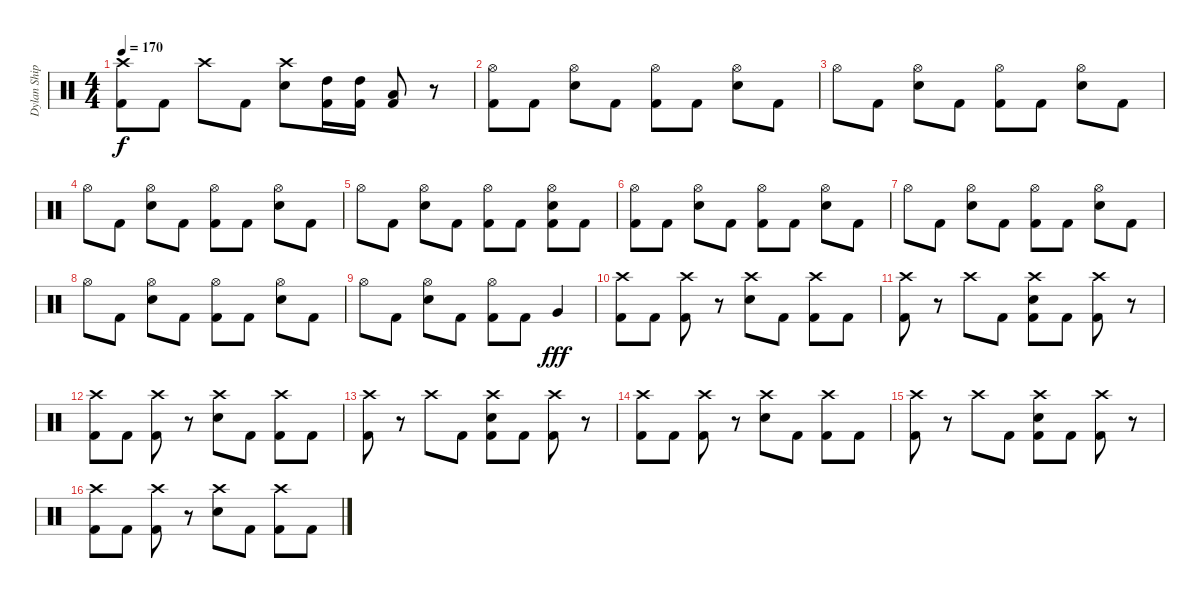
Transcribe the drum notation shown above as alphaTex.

\track ("Dylan Shippey" "Dylan Ship") {instrument percussion}
\staff {score}
\articulation defaults
\ts (4 4)
\tempo 170
\clef neutral
\ks c
("Crash high (hit)" "Kick (hit) 2").8{dy f} "Kick (hit) 2".8 "Crash high (hit)".8 "Kick (hit) 2".8 ("Crash high (hit)" "Electric Snare (hit)").8 ("High Tom (hit)" "Kick (hit) 2").16 ("High Tom (hit)" "Kick (hit) 2").16 ("Low Tom (hit)" "Kick (hit) 2").8 r.8 |
("Hi-Hat (open)" "Kick (hit) 2").8 "Kick (hit) 2".8 ("Hi-Hat (open)" "Electric Snare (hit)").8 "Kick (hit) 2".8 ("Hi-Hat (open)" "Kick (hit) 2").8 "Kick (hit) 2".8 ("Hi-Hat (open)" "Electric Snare (hit)").8 "Kick (hit) 2".8 |
"Hi-Hat (open)".8 "Kick (hit) 2".8 ("Hi-Hat (open)" "Electric Snare (hit)").8 "Kick (hit) 2".8 ("Hi-Hat (open)" "Kick (hit) 2").8 "Kick (hit) 2".8 ("Hi-Hat (open)" "Electric Snare (hit)").8 "Kick (hit) 2".8 |
"Hi-Hat (open)".8 "Kick (hit) 2".8 ("Hi-Hat (open)" "Electric Snare (hit)").8 "Kick (hit) 2".8 ("Hi-Hat (open)" "Kick (hit) 2").8 "Kick (hit) 2".8 ("Hi-Hat (open)" "Electric Snare (hit)").8 "Kick (hit) 2".8 |
"Hi-Hat (open)".8 "Kick (hit) 2".8 ("Hi-Hat (open)" "Electric Snare (hit)").8 "Kick (hit) 2".8 ("Hi-Hat (open)" "Kick (hit) 2").8 "Kick (hit) 2".8 ("Hi-Hat (open)" "Electric Snare (hit)" "Kick (hit) 2").8 "Kick (hit) 2".8 |
("Hi-Hat (open)" "Kick (hit) 2").8 "Kick (hit) 2".8 ("Hi-Hat (open)" "Electric Snare (hit)").8 "Kick (hit) 2".8 ("Hi-Hat (open)" "Kick (hit) 2").8 "Kick (hit) 2".8 ("Hi-Hat (open)" "Electric Snare (hit)").8 "Kick (hit) 2".8 |
"Hi-Hat (open)".8 "Kick (hit) 2".8 ("Hi-Hat (open)" "Electric Snare (hit)").8 "Kick (hit) 2".8 ("Hi-Hat (open)" "Kick (hit) 2").8 "Kick (hit) 2".8 ("Hi-Hat (open)" "Electric Snare (hit)").8 "Kick (hit) 2".8 |
"Hi-Hat (open)".8 "Kick (hit) 2".8 ("Hi-Hat (open)" "Electric Snare (hit)").8 "Kick (hit) 2".8 ("Hi-Hat (open)" "Kick (hit) 2").8 "Kick (hit) 2".8 ("Hi-Hat (open)" "Electric Snare (hit)").8 "Kick (hit) 2".8 |
"Hi-Hat (open)".8 "Kick (hit) 2".8 ("Hi-Hat (open)" "Electric Snare (hit)").8 "Kick (hit) 2".8 ("Hi-Hat (open)" "Kick (hit) 2").8 "Kick (hit) 2".8 "Very Low Tom (hit)".4{dy fff} |
("Crash high (hit)" "Kick (hit) 2").8 "Kick (hit) 2".8 ("Crash high (hit)" "Kick (hit) 2").8 r.8 ("Crash high (hit)" "Electric Snare (hit)").8 "Kick (hit) 2".8 ("Crash high (hit)" "Kick (hit) 2").8 "Kick (hit) 2".8 |
("Crash high (hit)" "Kick (hit) 2").8 r.8 "Crash high (hit)".8 "Kick (hit) 2".8 ("Crash high (hit)" "Electric Snare (hit)" "Kick (hit) 2").8 "Kick (hit) 2".8 ("Crash high (hit)" "Kick (hit) 2").8 r.8 |
("Crash high (hit)" "Kick (hit) 2").8 "Kick (hit) 2".8 ("Crash high (hit)" "Kick (hit) 2").8 r.8 ("Crash high (hit)" "Electric Snare (hit)").8 "Kick (hit) 2".8 ("Crash high (hit)" "Kick (hit) 2").8 "Kick (hit) 2".8 |
("Crash high (hit)" "Kick (hit) 2").8 r.8 "Crash high (hit)".8 "Kick (hit) 2".8 ("Crash high (hit)" "Electric Snare (hit)" "Kick (hit) 2").8 "Kick (hit) 2".8 ("Crash high (hit)" "Kick (hit) 2").8 r.8 |
("Crash high (hit)" "Kick (hit) 2").8 "Kick (hit) 2".8 ("Crash high (hit)" "Kick (hit) 2").8 r.8 ("Crash high (hit)" "Electric Snare (hit)").8 "Kick (hit) 2".8 ("Crash high (hit)" "Kick (hit) 2").8 "Kick (hit) 2".8 |
("Crash high (hit)" "Kick (hit) 2").8 r.8 "Crash high (hit)".8 "Kick (hit) 2".8 ("Crash high (hit)" "Electric Snare (hit)" "Kick (hit) 2").8 "Kick (hit) 2".8 ("Crash high (hit)" "Kick (hit) 2").8 r.8 |
("Crash high (hit)" "Kick (hit) 2").8 "Kick (hit) 2".8 ("Crash high (hit)" "Kick (hit) 2").8 r.8 ("Crash high (hit)" "Electric Snare (hit)").8 "Kick (hit) 2".8 ("Crash high (hit)" "Kick (hit) 2").8 "Kick (hit) 2".8
